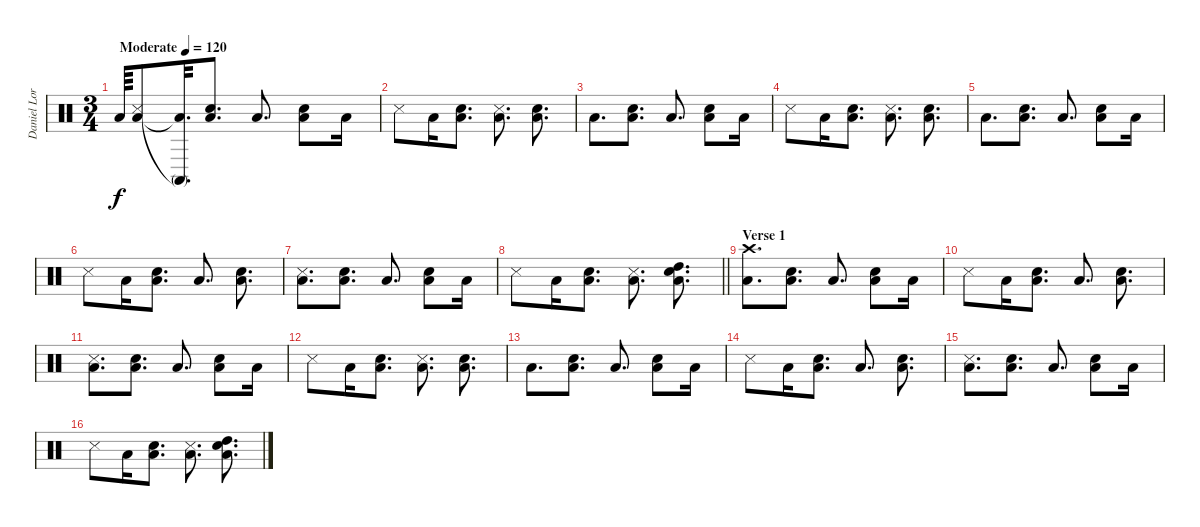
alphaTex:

\track ("Daniel Lorca " "Daniel Lor") {instrument percussion}
\staff {score}
\articulation defaults
\ts (3 4)
\tempo (120 "Moderate")
\clef neutral
\ks c "Low Floor Tom (hit)".64{dy f}
("Low Floor Tom (hit)" "Metronome (hit)").8 ("Low Floor Tom (hit)"{t} "Conga high (mute)"{t}).32{d} ("Low Floor Tom (hit)" "Electric Snare (hit)").8{d} "Low Floor Tom (hit)".8{d} ("Low Floor Tom (hit)" "Electric Snare (hit)").8 "Low Floor Tom (hit)".16 |
"Snare (side stick) 3".8 "Low Floor Tom (hit)".16 ("Low Floor Tom (hit)" "Electric Snare (hit)").8{d} ("Low Floor Tom (hit)" "Metronome (hit)").8{d} ("Low Floor Tom (hit)" "Electric Snare (hit)").8{d} |
"Low Floor Tom (hit)".8{d} ("Low Floor Tom (hit)" "Electric Snare (hit)").8{d} "Low Floor Tom (hit)".8{d} ("Low Floor Tom (hit)" "Electric Snare (hit)").8 "Low Floor Tom (hit)".16 |
"Snare (side stick) 3".8 "Low Floor Tom (hit)".16 ("Low Floor Tom (hit)" "Electric Snare (hit)").8{d} ("Low Floor Tom (hit)" "Metronome (hit)").8{d} ("Low Floor Tom (hit)" "Electric Snare (hit)").8{d} |
"Low Floor Tom (hit)".8{d} ("Low Floor Tom (hit)" "Electric Snare (hit)").8{d} "Low Floor Tom (hit)".8{d} ("Low Floor Tom (hit)" "Electric Snare (hit)").8 "Low Floor Tom (hit)".16 |
"Snare (side stick) 3".8 "Low Floor Tom (hit)".16 ("Low Floor Tom (hit)" "Electric Snare (hit)").8{d} "Low Floor Tom (hit)".8{d} ("Low Floor Tom (hit)" "Electric Snare (hit)").8{d} |
("Low Floor Tom (hit)" "Metronome (hit)").8{d} ("Low Floor Tom (hit)" "Electric Snare (hit)").8{d} "Low Floor Tom (hit)".8{d} ("Low Floor Tom (hit)" "Electric Snare (hit)").8 "Low Floor Tom (hit)".16 |
\barLineRight lightlight "Snare (side stick) 3".8 "Low Floor Tom (hit)".16
("Low Floor Tom (hit)" "Electric Snare (hit)").8{d} ("Low Floor Tom (hit)" "Metronome (hit)").8{d} ("Low Floor Tom (hit)" "Electric Snare (hit)" "High Tom (hit)").8{d} |
\section ("" "Verse 1")
("Low Floor Tom (hit)" "Crash high (hit)").8{d} ("Low Floor Tom (hit)" "Electric Snare (hit)").8{d} "Low Floor Tom (hit)".8{d} ("Low Floor Tom (hit)" "Electric Snare (hit)").8 "Low Floor Tom (hit)".16 |
"Snare (side stick) 3".8 "Low Floor Tom (hit)".16 ("Low Floor Tom (hit)" "Electric Snare (hit)").8{d} "Low Floor Tom (hit)".8{d} ("Low Floor Tom (hit)" "Electric Snare (hit)").8{d} |
("Low Floor Tom (hit)" "Metronome (hit)").8{d} ("Low Floor Tom (hit)" "Electric Snare (hit)").8{d} "Low Floor Tom (hit)".8{d} ("Low Floor Tom (hit)" "Electric Snare (hit)").8 "Low Floor Tom (hit)".16 |
"Snare (side stick) 3".8 "Low Floor Tom (hit)".16 ("Low Floor Tom (hit)" "Electric Snare (hit)").8{d} ("Low Floor Tom (hit)" "Metronome (hit)").8{d} ("Low Floor Tom (hit)" "Electric Snare (hit)").8{d} |
"Low Floor Tom (hit)".8{d} ("Low Floor Tom (hit)" "Electric Snare (hit)").8{d} "Low Floor Tom (hit)".8{d} ("Low Floor Tom (hit)" "Electric Snare (hit)").8 "Low Floor Tom (hit)".16 |
"Snare (side stick) 3".8 "Low Floor Tom (hit)".16 ("Low Floor Tom (hit)" "Electric Snare (hit)").8{d} "Low Floor Tom (hit)".8{d} ("Low Floor Tom (hit)" "Electric Snare (hit)").8{d} |
("Low Floor Tom (hit)" "Metronome (hit)").8{d} ("Low Floor Tom (hit)" "Electric Snare (hit)").8{d} "Low Floor Tom (hit)".8{d} ("Low Floor Tom (hit)" "Electric Snare (hit)").8 "Low Floor Tom (hit)".16 |
"Snare (side stick) 3".8 "Low Floor Tom (hit)".16 ("Low Floor Tom (hit)" "Electric Snare (hit)").8{d} ("Low Floor Tom (hit)" "Metronome (hit)").8{d} ("Low Floor Tom (hit)" "Electric Snare (hit)" "High Tom (hit)").8{d}
